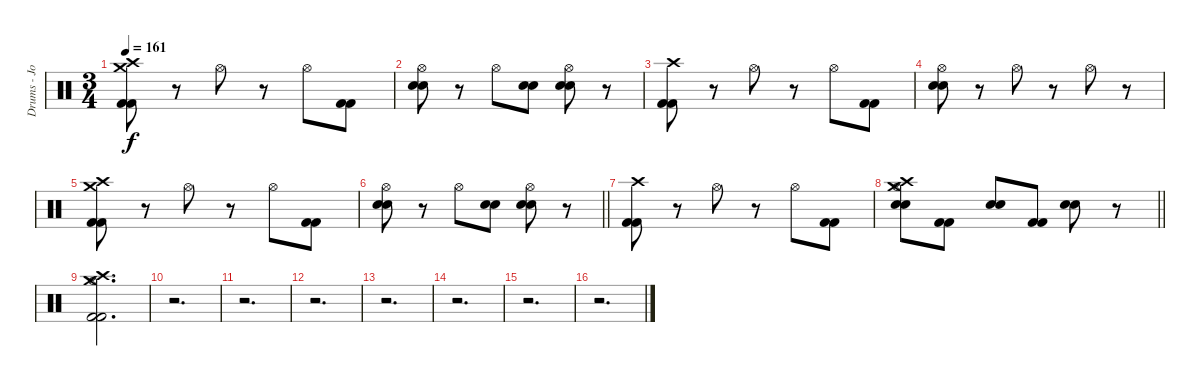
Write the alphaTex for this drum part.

\track ("Drums - Jon Wilkes" "Drums - Jo") {instrument percussion}
\staff {score}
\articulation defaults
\ts (3 4)
\tempo 161
\clef neutral
\ks c
("Crash medium (hit)" "Crash high (hit)" "Kick (hit) 2" "Kick (hit) 2").8{dy f} r.8 "Hi-Hat (open)".8 r.8 "Hi-Hat (open)".8 ("Kick (hit) 2" "Kick (hit) 2").8 |
("Hi-Hat (open)" "Electric Snare (hit)" "Electric Snare (hit)").8 r.8 "Hi-Hat (open)".8 ("Electric Snare (hit)" "Electric Snare (hit)").8 ("Hi-Hat (open)" "Electric Snare (hit)" "Electric Snare (hit)").8 r.8 |
("Crash high (hit)" "Kick (hit) 2" "Kick (hit) 2").8 r.8 "Hi-Hat (open)".8 r.8 "Hi-Hat (open)".8 ("Kick (hit) 2" "Kick (hit) 2").8 |
("Hi-Hat (open)" "Electric Snare (hit)" "Electric Snare (hit)").8 r.8 "Hi-Hat (open)".8 r.8 "Hi-Hat (open)".8 r.8 |
("Crash medium (hit)" "Crash high (hit)" "Kick (hit) 2" "Kick (hit) 2").8 r.8 "Hi-Hat (open)".8 r.8 "Hi-Hat (open)".8 ("Kick (hit) 2" "Kick (hit) 2").8 |
\barLineRight lightlight
("Hi-Hat (open)" "Electric Snare (hit)" "Electric Snare (hit)").8 r.8 "Hi-Hat (open)".8 ("Electric Snare (hit)" "Electric Snare (hit)").8 ("Hi-Hat (open)" "Electric Snare (hit)" "Electric Snare (hit)").8 r.8 |
("Crash high (hit)" "Kick (hit) 2" "Kick (hit) 2").8 r.8 "Hi-Hat (open)".8 r.8 "Hi-Hat (open)".8 ("Kick (hit) 2" "Kick (hit) 2").8 |
\barLineRight lightlight
("Crash medium (hit)" "Hi-Hat (open)" "Electric Snare (hit)" "Electric Snare (hit)" "Crash high (hit)").8 ("Kick (hit) 2" "Kick (hit) 2").8 ("Electric Snare (hit)" "Electric Snare (hit)").8 ("Kick (hit) 2" "Kick (hit) 2").8 ("Electric Snare (hit)" "Electric Snare (hit)").8 r.8 |
("Hi-Hat (open)" "Crash high (hit)" "Crash medium (hit)" "Kick (hit) 2" "Kick (hit) 2").2{d} |
r.2{d} |
r.2{d} |
r.2{d} |
r.2{d} |
r.2{d} |
r.2{d} |
r.2{d}
